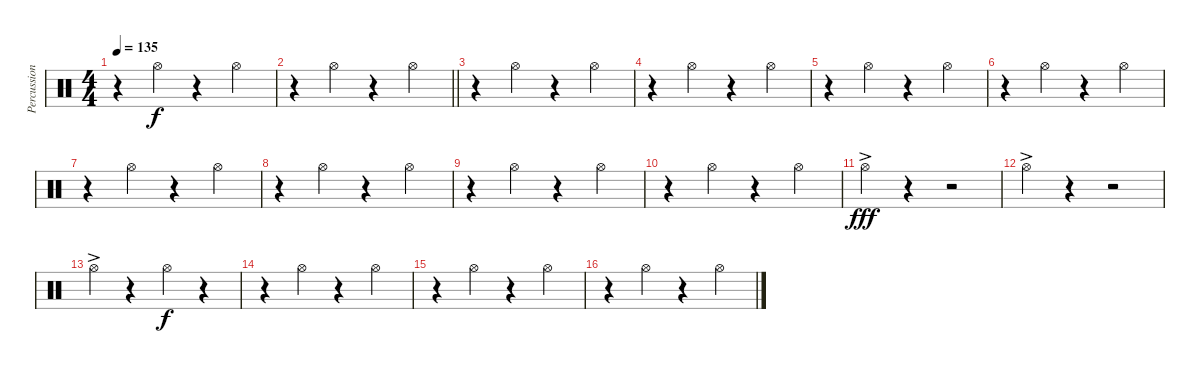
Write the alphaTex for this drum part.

\track ("Percussions 1" "Percussion") {instrument percussion}
\staff {score}
\articulation defaults
\ts (4 4)
\tempo 135
\clef neutral
\ks c
r.4{dy f} "Hi-Hat (open)".4 r.4 "Hi-Hat (open)".4 |
\barLineRight lightlight
r.4 "Hi-Hat (open)".4 r.4 "Hi-Hat (open)".4 |
r.4 "Hi-Hat (open)".4 r.4 "Hi-Hat (open)".4 |
r.4 "Hi-Hat (open)".4 r.4 "Hi-Hat (open)".4 |
r.4 "Hi-Hat (open)".4 r.4 "Hi-Hat (open)".4 |
r.4 "Hi-Hat (open)".4 r.4 "Hi-Hat (open)".4 |
r.4 "Hi-Hat (open)".4 r.4 "Hi-Hat (open)".4 |
r.4 "Hi-Hat (open)".4 r.4 "Hi-Hat (open)".4 |
r.4 "Hi-Hat (open)".4 r.4 "Hi-Hat (open)".4 |
r.4 "Hi-Hat (open)".4 r.4 "Hi-Hat (open)".4 |
"Hi-Hat (open)"{ac}.4{dy fff} r.4 r.2 |
"Hi-Hat (open)"{ac}.4 r.4 r.2 |
"Hi-Hat (open)"{ac}.4 r.4 "Hi-Hat (open)".4{dy f} r.4 |
r.4 "Hi-Hat (open)".4 r.4 "Hi-Hat (open)".4 |
r.4 "Hi-Hat (open)".4 r.4 "Hi-Hat (open)".4 |
r.4 "Hi-Hat (open)".4 r.4 "Hi-Hat (open)".4
